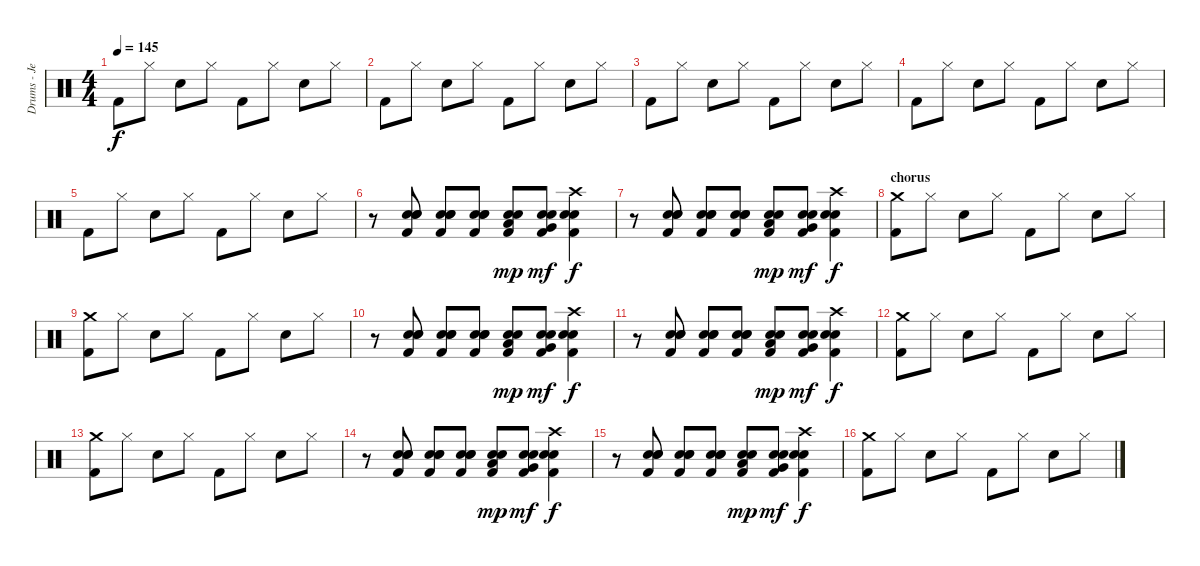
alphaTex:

\track ("Drums - Jeremiah Green" "Drums - Je") {instrument percussion}
\staff {score}
\articulation defaults
\ts (4 4)
\tempo 145
\clef neutral
\ks c "Kick (hit) 2".8{dy f} "Hi-Hat (closed)".8 "Electric Snare (hit)".8 "Hi-Hat (closed)".8 "Kick (hit) 2".8 "Hi-Hat (closed)".8 "Electric Snare (hit)".8 "Hi-Hat (closed)".8
|
"Kick (hit) 2".8 "Hi-Hat (closed)".8 "Electric Snare (hit)".8 "Hi-Hat (closed)".8 "Kick (hit) 2".8 "Hi-Hat (closed)".8 "Electric Snare (hit)".8 "Hi-Hat (closed)".8 |
"Kick (hit) 2".8 "Hi-Hat (closed)".8 "Electric Snare (hit)".8 "Hi-Hat (closed)".8 "Kick (hit) 2".8 "Hi-Hat (closed)".8 "Electric Snare (hit)".8 "Hi-Hat (closed)".8 |
"Kick (hit) 2".8 "Hi-Hat (closed)".8 "Electric Snare (hit)".8 "Hi-Hat (closed)".8 "Kick (hit) 2".8 "Hi-Hat (closed)".8 "Electric Snare (hit)".8 "Hi-Hat (closed)".8 |
"Kick (hit) 2".8 "Hi-Hat (closed)".8 "Electric Snare (hit)".8 "Hi-Hat (closed)".8 "Kick (hit) 2".8 "Hi-Hat (closed)".8 "Electric Snare (hit)".8 "Hi-Hat (closed)".8 |
r.8 ("Snare (hit) 2" "Electric Snare (hit)" "Electric Snare (hit)" "Kick (hit) 2").8 ("Snare (hit) 2" "Electric Snare (hit)" "Electric Snare (hit)" "Kick (hit) 2").8 ("Snare (hit) 2" "Electric Snare (hit)" "Electric Snare (hit)" "Kick (hit) 2").8 ("Snare (hit) 2" "Low Tom (hit)" "Electric Snare (hit)" "Kick (hit) 2").8{dy mp} ("Snare (hit) 2" "Very Low Tom (hit)" "Electric Snare (hit)" "Kick (hit) 2").8{dy mf} ("Crash high (hit)" "Snare (hit) 2" "Electric Snare (hit)" "Kick (hit) 2").4{dy f} |
r.8 ("Snare (hit) 2" "Electric Snare (hit)" "Electric Snare (hit)" "Kick (hit) 2").8 ("Snare (hit) 2" "Electric Snare (hit)" "Electric Snare (hit)" "Kick (hit) 2").8 ("Snare (hit) 2" "Electric Snare (hit)" "Electric Snare (hit)" "Kick (hit) 2").8 ("Snare (hit) 2" "Low Tom (hit)" "Electric Snare (hit)" "Kick (hit) 2").8{dy mp} ("Snare (hit) 2" "Very Low Tom (hit)" "Electric Snare (hit)" "Kick (hit) 2").8{dy mf} ("Crash high (hit)" "Snare (hit) 2" "Electric Snare (hit)" "Kick (hit) 2").4{dy f} |
\section ("" "chorus")
("Crash medium (hit)" "Kick (hit) 2").8 "Hi-Hat (closed)".8 "Electric Snare (hit)".8 "Hi-Hat (closed)".8 "Kick (hit) 2".8 "Hi-Hat (closed)".8 "Electric Snare (hit)".8 "Hi-Hat (closed)".8 |
("Crash medium (hit)" "Kick (hit) 2").8 "Hi-Hat (closed)".8 "Electric Snare (hit)".8 "Hi-Hat (closed)".8 "Kick (hit) 2".8 "Hi-Hat (closed)".8 "Electric Snare (hit)".8 "Hi-Hat (closed)".8 |
r.8 ("Snare (hit) 2" "Electric Snare (hit)" "Electric Snare (hit)" "Kick (hit) 2").8 ("Snare (hit) 2" "Electric Snare (hit)" "Electric Snare (hit)" "Kick (hit) 2").8 ("Snare (hit) 2" "Electric Snare (hit)" "Electric Snare (hit)" "Kick (hit) 2").8 ("Snare (hit) 2" "Low Tom (hit)" "Electric Snare (hit)" "Kick (hit) 2").8{dy mp} ("Snare (hit) 2" "Very Low Tom (hit)" "Electric Snare (hit)" "Kick (hit) 2").8{dy mf} ("Crash high (hit)" "Snare (hit) 2" "Electric Snare (hit)" "Kick (hit) 2").4{dy f} |
r.8 ("Snare (hit) 2" "Electric Snare (hit)" "Electric Snare (hit)" "Kick (hit) 2").8 ("Snare (hit) 2" "Electric Snare (hit)" "Electric Snare (hit)" "Kick (hit) 2").8 ("Snare (hit) 2" "Electric Snare (hit)" "Electric Snare (hit)" "Kick (hit) 2").8 ("Snare (hit) 2" "Low Tom (hit)" "Electric Snare (hit)" "Kick (hit) 2").8{dy mp} ("Snare (hit) 2" "Very Low Tom (hit)" "Electric Snare (hit)" "Kick (hit) 2").8{dy mf} ("Crash high (hit)" "Snare (hit) 2" "Electric Snare (hit)" "Kick (hit) 2").4{dy f} |
("Crash medium (hit)" "Kick (hit) 2").8 "Hi-Hat (closed)".8 "Electric Snare (hit)".8 "Hi-Hat (closed)".8 "Kick (hit) 2".8 "Hi-Hat (closed)".8 "Electric Snare (hit)".8 "Hi-Hat (closed)".8 |
("Crash medium (hit)" "Kick (hit) 2").8 "Hi-Hat (closed)".8 "Electric Snare (hit)".8 "Hi-Hat (closed)".8 "Kick (hit) 2".8 "Hi-Hat (closed)".8 "Electric Snare (hit)".8 "Hi-Hat (closed)".8 |
r.8 ("Snare (hit) 2" "Electric Snare (hit)" "Electric Snare (hit)" "Kick (hit) 2").8 ("Snare (hit) 2" "Electric Snare (hit)" "Electric Snare (hit)" "Kick (hit) 2").8 ("Snare (hit) 2" "Electric Snare (hit)" "Electric Snare (hit)" "Kick (hit) 2").8 ("Snare (hit) 2" "Low Tom (hit)" "Electric Snare (hit)" "Kick (hit) 2").8{dy mp} ("Snare (hit) 2" "Very Low Tom (hit)" "Electric Snare (hit)" "Kick (hit) 2").8{dy mf} ("Crash high (hit)" "Snare (hit) 2" "Electric Snare (hit)" "Kick (hit) 2").4{dy f} |
r.8 ("Snare (hit) 2" "Electric Snare (hit)" "Electric Snare (hit)" "Kick (hit) 2").8 ("Snare (hit) 2" "Electric Snare (hit)" "Electric Snare (hit)" "Kick (hit) 2").8 ("Snare (hit) 2" "Electric Snare (hit)" "Electric Snare (hit)" "Kick (hit) 2").8 ("Snare (hit) 2" "Low Tom (hit)" "Electric Snare (hit)" "Kick (hit) 2").8{dy mp} ("Snare (hit) 2" "Very Low Tom (hit)" "Electric Snare (hit)" "Kick (hit) 2").8{dy mf} ("Crash high (hit)" "Snare (hit) 2" "Electric Snare (hit)" "Kick (hit) 2").4{dy f} |
("Crash medium (hit)" "Kick (hit) 2").8 "Hi-Hat (closed)".8 "Electric Snare (hit)".8 "Hi-Hat (closed)".8 "Kick (hit) 2".8 "Hi-Hat (closed)".8 "Electric Snare (hit)".8 "Hi-Hat (closed)".8
